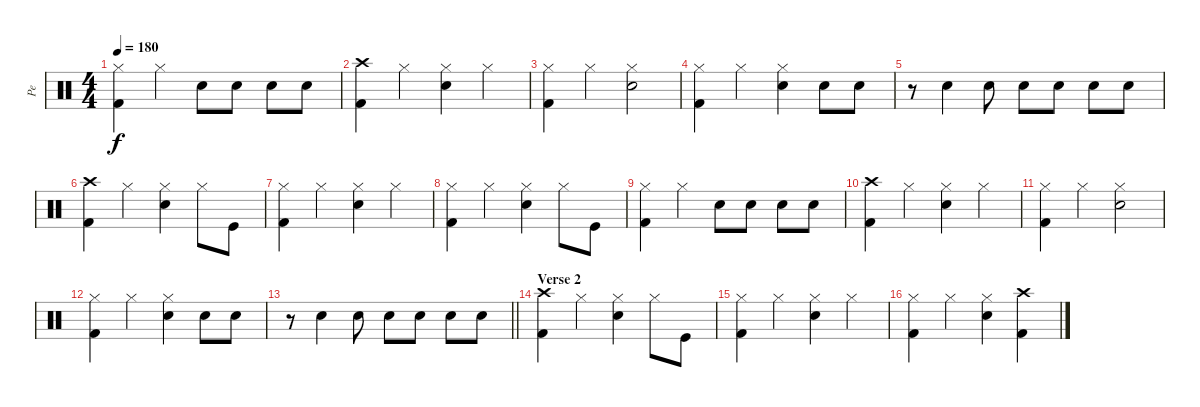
\track ("Pe" "Pe") {instrument percussion}
\staff {score}
\articulation defaults
\ts (4 4)
\tempo 180
\clef neutral
\ks c
("Kick (hit) 2" "Hi-Hat (closed)").4{dy f} "Hi-Hat (closed)".4 "Electric Snare (hit)".8 "Electric Snare (hit)".8 "Electric Snare (hit)".8 "Electric Snare (hit)".8 |
("Kick (hit) 2" "Crash high (hit)").4 "Hi-Hat (closed)".4 ("Electric Snare (hit)" "Hi-Hat (closed)").4 "Hi-Hat (closed)".4 |
("Kick (hit) 2" "Hi-Hat (closed)").4 "Hi-Hat (closed)".4 ("Electric Snare (hit)" "Hi-Hat (closed)").2 |
("Kick (hit) 2" "Hi-Hat (closed)").4 "Hi-Hat (closed)".4 ("Electric Snare (hit)" "Hi-Hat (closed)").4 "Electric Snare (hit)".8 "Electric Snare (hit)".8 |
r.8 "Electric Snare (hit)".4 "Electric Snare (hit)".8 "Electric Snare (hit)".8 "Electric Snare (hit)".8 "Electric Snare (hit)".8 "Electric Snare (hit)".8 |
("Kick (hit) 2" "Crash high (hit)").4 "Hi-Hat (closed)".4 ("Electric Snare (hit)" "Hi-Hat (closed)").4 "Hi-Hat (closed)".8 "Kick (hit)".8 |
("Kick (hit) 2" "Hi-Hat (closed)").4 "Hi-Hat (closed)".4 ("Electric Snare (hit)" "Hi-Hat (closed)").4 "Hi-Hat (closed)".4 |
("Kick (hit) 2" "Hi-Hat (closed)").4 "Hi-Hat (closed)".4 ("Electric Snare (hit)" "Hi-Hat (closed)").4 "Hi-Hat (closed)".8 "Kick (hit)".8 |
("Kick (hit) 2" "Hi-Hat (closed)").4 "Hi-Hat (closed)".4 "Electric Snare (hit)".8 "Electric Snare (hit)".8 "Electric Snare (hit)".8 "Electric Snare (hit)".8 |
("Kick (hit) 2" "Crash high (hit)").4 "Hi-Hat (closed)".4 ("Electric Snare (hit)" "Hi-Hat (closed)").4 "Hi-Hat (closed)".4 |
("Kick (hit) 2" "Hi-Hat (closed)").4 "Hi-Hat (closed)".4 ("Electric Snare (hit)" "Hi-Hat (closed)").2 |
("Kick (hit) 2" "Hi-Hat (closed)").4 "Hi-Hat (closed)".4 ("Electric Snare (hit)" "Hi-Hat (closed)").4 "Electric Snare (hit)".8 "Electric Snare (hit)".8 |
\barLineRight lightlight
r.8 "Electric Snare (hit)".4 "Electric Snare (hit)".8 "Electric Snare (hit)".8 "Electric Snare (hit)".8 "Electric Snare (hit)".8 "Electric Snare (hit)".8 |
\section ("" "Verse 2")
("Kick (hit) 2" "Crash high (hit)").4 "Hi-Hat (closed)".4 ("Electric Snare (hit)" "Hi-Hat (closed)").4 "Hi-Hat (closed)".8 "Kick (hit)".8 |
("Kick (hit) 2" "Hi-Hat (closed)").4 "Hi-Hat (closed)".4 ("Electric Snare (hit)" "Hi-Hat (closed)").4 "Hi-Hat (closed)".4 |
("Kick (hit) 2" "Hi-Hat (closed)").4 "Hi-Hat (closed)".4 ("Electric Snare (hit)" "Hi-Hat (closed)").4 ("Kick (hit) 2" "Crash high (hit)").4
